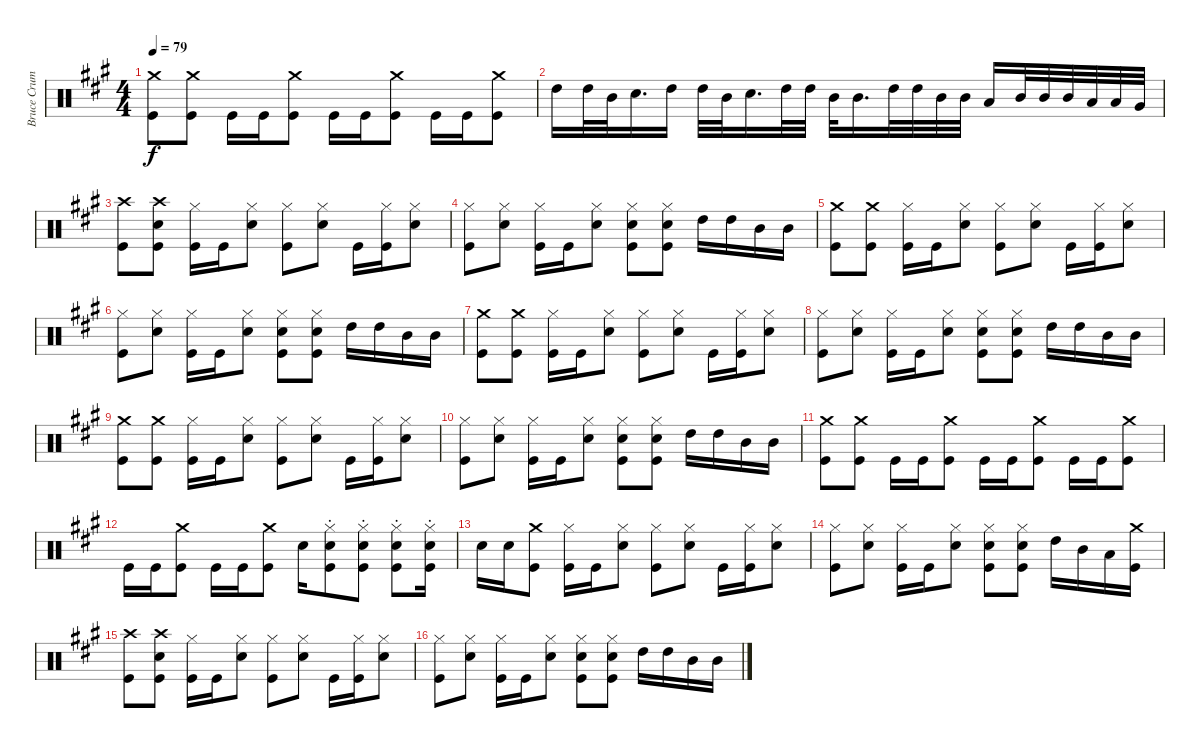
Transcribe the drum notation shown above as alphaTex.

\track ("Bruce Crump Drums" "Bruce Crum") {instrument percussion}
\staff {score}
\articulation defaults
\ts (4 4)
\tempo 79
\clef neutral
\ks a
("Crash medium (hit)" "Kick (hit)").8{dy f} ("Crash medium (hit)" "Kick (hit)").8 "Kick (hit)".16 "Kick (hit)".16 ("Crash medium (hit)" "Kick (hit)").8 "Kick (hit)".16 "Kick (hit)".16 ("Crash medium (hit)" "Kick (hit)").8 "Kick (hit)".16 "Kick (hit)".16 ("Crash medium (hit)" "Kick (hit)").8 |
"High Tom (hit)".16 "High Tom (hit)".32 "Mid Tom (hit)".32 "Snare (hit) 2".16{d} "High Tom (hit)".16 "High Tom (hit)".32 "Mid Tom (hit)".32 "Snare (hit) 2".16{d} "High Tom (hit)".32 "High Tom (hit)".32 "Mid Tom (hit)".32 "Mid Tom (hit)".16{d} "High Tom (hit)".32 "High Tom (hit)".32 "Mid Tom (hit)".32 "Mid Tom (hit)".32 "Low Tom (hit)".16 "Mid Tom (hit)".32 "Mid Tom (hit)".32 "Mid Tom (hit)".32 "Low Tom (hit)".32 "Low Tom (hit)".32 "Very Low Tom (hit)".32 |
("Crash high (hit)" "Kick (hit)").8 ("Crash high (hit)" "Snare (hit) 2" "Kick (hit)").8 ("Hi-Hat (closed)" "Kick (hit)").16 "Kick (hit)".16 ("Hi-Hat (closed)" "Snare (hit) 2").8 ("Hi-Hat (closed)" "Kick (hit)").8 ("Hi-Hat (closed)" "Snare (hit) 2").8 "Kick (hit)".16 ("Hi-Hat (closed)" "Kick (hit)").16 ("Hi-Hat (closed)" "Snare (hit) 2").8 |
("Hi-Hat (closed)" "Kick (hit)").8 ("Hi-Hat (closed)" "Snare (hit) 2").8 ("Hi-Hat (closed)" "Kick (hit)").16 "Kick (hit)".16 ("Hi-Hat (closed)" "Snare (hit) 2").8 ("Hi-Hat (closed)" "Snare (hit) 2" "Kick (hit)").8 ("Hi-Hat (closed)" "Snare (hit) 2" "Kick (hit)").8 "High Tom (hit)".16 "High Tom (hit)".16 "Mid Tom (hit)".16 "Mid Tom (hit)".16 |
("Crash medium (hit)" "Kick (hit)").8 ("Crash medium (hit)" "Kick (hit)").8 ("Hi-Hat (closed)" "Kick (hit)").16 "Kick (hit)".16 ("Hi-Hat (closed)" "Snare (hit) 2").8 ("Hi-Hat (closed)" "Kick (hit)").8 ("Hi-Hat (closed)" "Snare (hit) 2").8 "Kick (hit)".16 ("Hi-Hat (closed)" "Kick (hit)").16 ("Hi-Hat (closed)" "Snare (hit) 2").8 |
("Hi-Hat (closed)" "Kick (hit)").8 ("Hi-Hat (closed)" "Snare (hit) 2").8 ("Hi-Hat (closed)" "Kick (hit)").16 "Kick (hit)".16 ("Hi-Hat (closed)" "Snare (hit) 2").8 ("Hi-Hat (closed)" "Snare (hit) 2" "Kick (hit)").8 ("Hi-Hat (closed)" "Snare (hit) 2" "Kick (hit)").8 "High Tom (hit)".16 "High Tom (hit)".16 "Mid Tom (hit)".16 "Mid Tom (hit)".16 |
("Crash medium (hit)" "Kick (hit)").8 ("Crash medium (hit)" "Kick (hit)").8 ("Hi-Hat (closed)" "Kick (hit)").16 "Kick (hit)".16 ("Hi-Hat (closed)" "Snare (hit) 2").8 ("Hi-Hat (closed)" "Kick (hit)").8 ("Hi-Hat (closed)" "Snare (hit) 2").8 "Kick (hit)".16 ("Hi-Hat (closed)" "Kick (hit)").16 ("Hi-Hat (closed)" "Snare (hit) 2").8 |
("Hi-Hat (closed)" "Kick (hit)").8 ("Hi-Hat (closed)" "Snare (hit) 2").8 ("Hi-Hat (closed)" "Kick (hit)").16 "Kick (hit)".16 ("Hi-Hat (closed)" "Snare (hit) 2").8 ("Hi-Hat (closed)" "Snare (hit) 2" "Kick (hit)").8 ("Hi-Hat (closed)" "Snare (hit) 2" "Kick (hit)").8 "High Tom (hit)".16 "High Tom (hit)".16 "Mid Tom (hit)".16 "Mid Tom (hit)".16 |
("Crash medium (hit)" "Kick (hit)").8 ("Crash medium (hit)" "Kick (hit)").8 ("Hi-Hat (closed)" "Kick (hit)").16 "Kick (hit)".16 ("Hi-Hat (closed)" "Snare (hit) 2").8 ("Hi-Hat (closed)" "Kick (hit)").8 ("Hi-Hat (closed)" "Snare (hit) 2").8 "Kick (hit)".16 ("Hi-Hat (closed)" "Kick (hit)").16 ("Hi-Hat (closed)" "Snare (hit) 2").8 |
("Hi-Hat (closed)" "Kick (hit)").8 ("Hi-Hat (closed)" "Snare (hit) 2").8 ("Hi-Hat (closed)" "Kick (hit)").16 "Kick (hit)".16 ("Hi-Hat (closed)" "Snare (hit) 2").8 ("Hi-Hat (closed)" "Snare (hit) 2" "Kick (hit)").8 ("Hi-Hat (closed)" "Snare (hit) 2" "Kick (hit)").8 "High Tom (hit)".16 "High Tom (hit)".16 "Mid Tom (hit)".16 "Mid Tom (hit)".16 |
("Crash medium (hit)" "Kick (hit)").8 ("Crash medium (hit)" "Kick (hit)").8 "Kick (hit)".16 "Kick (hit)".16 ("Crash medium (hit)" "Kick (hit)").8 "Kick (hit)".16 "Kick (hit)".16 ("Crash medium (hit)" "Kick (hit)").8 "Kick (hit)".16 "Kick (hit)".16 ("Crash medium (hit)" "Kick (hit)").8 |
"Kick (hit)".16 "Kick (hit)".16 ("Crash medium (hit)" "Kick (hit)").8 "Kick (hit)".16 "Kick (hit)".16 ("Crash medium (hit)" "Kick (hit)").8 "Snare (hit) 2".16 ("Hi-Hat (closed)"{st} "Snare (hit) 2"{st} "Kick (hit)"{st}).8 ("Hi-Hat (closed)"{st} "Snare (hit) 2"{st} "Kick (hit)"{st}).8 ("Hi-Hat (closed)"{st} "Snare (hit) 2"{st} "Kick (hit)"{st}).8 ("Hi-Hat (closed)"{st} "Snare (hit) 2"{st} "Kick (hit)"{st}).16 |
"Snare (hit) 2".16 "Snare (hit) 2".16 ("Crash medium (hit)" "Kick (hit)").8 ("Hi-Hat (closed)" "Kick (hit)").16 "Kick (hit)".16 ("Hi-Hat (closed)" "Snare (hit) 2").8 ("Hi-Hat (closed)" "Kick (hit)").8 ("Hi-Hat (closed)" "Snare (hit) 2").8 "Kick (hit)".16 ("Hi-Hat (closed)" "Kick (hit)").16 ("Hi-Hat (closed)" "Snare (hit) 2").8 |
("Hi-Hat (closed)" "Kick (hit)").8 ("Hi-Hat (closed)" "Snare (hit) 2").8 ("Hi-Hat (closed)" "Kick (hit)").16 "Kick (hit)".16 ("Hi-Hat (closed)" "Snare (hit) 2").8 ("Hi-Hat (closed)" "Snare (hit) 2" "Kick (hit)").8 ("Hi-Hat (closed)" "Snare (hit) 2" "Kick (hit)").8 "High Tom (hit)".16 "Mid Tom (hit)".16 "Low Tom (hit)".16 ("Crash medium (hit)" "Kick (hit)").16 |
("Crash high (hit)" "Kick (hit)").8 ("Crash high (hit)" "Snare (hit) 2" "Kick (hit)").8 ("Hi-Hat (closed)" "Kick (hit)").16 "Kick (hit)".16 ("Hi-Hat (closed)" "Snare (hit) 2").8 ("Hi-Hat (closed)" "Kick (hit)").8 ("Hi-Hat (closed)" "Snare (hit) 2").8 "Kick (hit)".16 ("Hi-Hat (closed)" "Kick (hit)").16 ("Hi-Hat (closed)" "Snare (hit) 2").8 |
("Hi-Hat (closed)" "Kick (hit)").8 ("Hi-Hat (closed)" "Snare (hit) 2").8 ("Hi-Hat (closed)" "Kick (hit)").16 "Kick (hit)".16 ("Hi-Hat (closed)" "Snare (hit) 2").8 ("Hi-Hat (closed)" "Snare (hit) 2" "Kick (hit)").8 ("Hi-Hat (closed)" "Snare (hit) 2" "Kick (hit)").8 "High Tom (hit)".16 "High Tom (hit)".16 "Mid Tom (hit)".16 "Mid Tom (hit)".16
